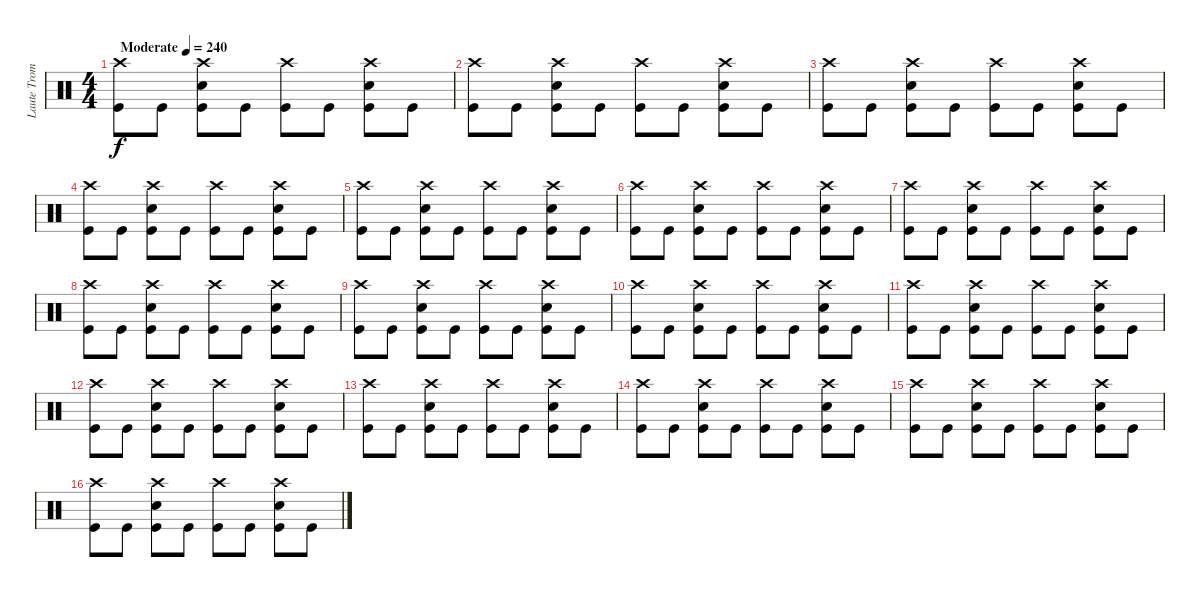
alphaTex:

\track ("Laute Trommeln ^^" "Laute Trom") {instrument percussion}
\staff {score}
\articulation defaults
\ts (4 4)
\tempo (240 "Moderate")
\clef neutral
\ks c
("Crash high (hit)" "Kick (hit)").8{dy f} "Kick (hit)".8 ("Crash high (hit)" "Snare (hit) 2" "Kick (hit)").8 "Kick (hit)".8 ("Crash high (hit)" "Kick (hit)").8 "Kick (hit)".8 ("Crash high (hit)" "Snare (hit) 2" "Kick (hit)").8 "Kick (hit)".8 |
("Crash high (hit)" "Kick (hit)").8 "Kick (hit)".8 ("Crash high (hit)" "Snare (hit) 2" "Kick (hit)").8 "Kick (hit)".8 ("Crash high (hit)" "Kick (hit)").8 "Kick (hit)".8 ("Crash high (hit)" "Snare (hit) 2" "Kick (hit)").8 "Kick (hit)".8 |
("Crash high (hit)" "Kick (hit)").8 "Kick (hit)".8 ("Crash high (hit)" "Snare (hit) 2" "Kick (hit)").8 "Kick (hit)".8 ("Crash high (hit)" "Kick (hit)").8 "Kick (hit)".8 ("Crash high (hit)" "Snare (hit) 2" "Kick (hit)").8 "Kick (hit)".8 |
("Crash high (hit)" "Kick (hit)").8 "Kick (hit)".8 ("Crash high (hit)" "Snare (hit) 2" "Kick (hit)").8 "Kick (hit)".8 ("Crash high (hit)" "Kick (hit)").8 "Kick (hit)".8 ("Crash high (hit)" "Snare (hit) 2" "Kick (hit)").8 "Kick (hit)".8 |
("Crash high (hit)" "Kick (hit)").8 "Kick (hit)".8 ("Crash high (hit)" "Snare (hit) 2" "Kick (hit)").8 "Kick (hit)".8 ("Crash high (hit)" "Kick (hit)").8 "Kick (hit)".8 ("Crash high (hit)" "Snare (hit) 2" "Kick (hit)").8 "Kick (hit)".8 |
("Crash high (hit)" "Kick (hit)").8 "Kick (hit)".8 ("Crash high (hit)" "Snare (hit) 2" "Kick (hit)").8 "Kick (hit)".8 ("Crash high (hit)" "Kick (hit)").8 "Kick (hit)".8 ("Crash high (hit)" "Snare (hit) 2" "Kick (hit)").8 "Kick (hit)".8 |
("Crash high (hit)" "Kick (hit)").8 "Kick (hit)".8 ("Crash high (hit)" "Snare (hit) 2" "Kick (hit)").8 "Kick (hit)".8 ("Crash high (hit)" "Kick (hit)").8 "Kick (hit)".8 ("Crash high (hit)" "Snare (hit) 2" "Kick (hit)").8 "Kick (hit)".8 |
("Crash high (hit)" "Kick (hit)").8 "Kick (hit)".8 ("Crash high (hit)" "Snare (hit) 2" "Kick (hit)").8 "Kick (hit)".8 ("Crash high (hit)" "Kick (hit)").8 "Kick (hit)".8 ("Crash high (hit)" "Snare (hit) 2" "Kick (hit)").8 "Kick (hit)".8 |
("Crash high (hit)" "Kick (hit)").8 "Kick (hit)".8 ("Crash high (hit)" "Snare (hit) 2" "Kick (hit)").8 "Kick (hit)".8 ("Crash high (hit)" "Kick (hit)").8 "Kick (hit)".8 ("Crash high (hit)" "Snare (hit) 2" "Kick (hit)").8 "Kick (hit)".8 |
("Crash high (hit)" "Kick (hit)").8 "Kick (hit)".8 ("Crash high (hit)" "Snare (hit) 2" "Kick (hit)").8 "Kick (hit)".8 ("Crash high (hit)" "Kick (hit)").8 "Kick (hit)".8 ("Crash high (hit)" "Snare (hit) 2" "Kick (hit)").8 "Kick (hit)".8 |
("Crash high (hit)" "Kick (hit)").8 "Kick (hit)".8 ("Crash high (hit)" "Snare (hit) 2" "Kick (hit)").8 "Kick (hit)".8 ("Crash high (hit)" "Kick (hit)").8 "Kick (hit)".8 ("Crash high (hit)" "Snare (hit) 2" "Kick (hit)").8 "Kick (hit)".8 |
("Crash high (hit)" "Kick (hit)").8 "Kick (hit)".8 ("Crash high (hit)" "Snare (hit) 2" "Kick (hit)").8 "Kick (hit)".8 ("Crash high (hit)" "Kick (hit)").8 "Kick (hit)".8 ("Crash high (hit)" "Snare (hit) 2" "Kick (hit)").8 "Kick (hit)".8 |
("Crash high (hit)" "Kick (hit)").8 "Kick (hit)".8 ("Crash high (hit)" "Snare (hit) 2" "Kick (hit)").8 "Kick (hit)".8 ("Crash high (hit)" "Kick (hit)").8 "Kick (hit)".8 ("Crash high (hit)" "Snare (hit) 2" "Kick (hit)").8 "Kick (hit)".8 |
("Crash high (hit)" "Kick (hit)").8 "Kick (hit)".8 ("Crash high (hit)" "Snare (hit) 2" "Kick (hit)").8 "Kick (hit)".8 ("Crash high (hit)" "Kick (hit)").8 "Kick (hit)".8 ("Crash high (hit)" "Snare (hit) 2" "Kick (hit)").8 "Kick (hit)".8 |
("Crash high (hit)" "Kick (hit)").8 "Kick (hit)".8 ("Crash high (hit)" "Snare (hit) 2" "Kick (hit)").8 "Kick (hit)".8 ("Crash high (hit)" "Kick (hit)").8 "Kick (hit)".8 ("Crash high (hit)" "Snare (hit) 2" "Kick (hit)").8 "Kick (hit)".8 |
("Crash high (hit)" "Kick (hit)").8 "Kick (hit)".8 ("Crash high (hit)" "Snare (hit) 2" "Kick (hit)").8 "Kick (hit)".8 ("Crash high (hit)" "Kick (hit)").8 "Kick (hit)".8 ("Crash high (hit)" "Snare (hit) 2" "Kick (hit)").8 "Kick (hit)".8
